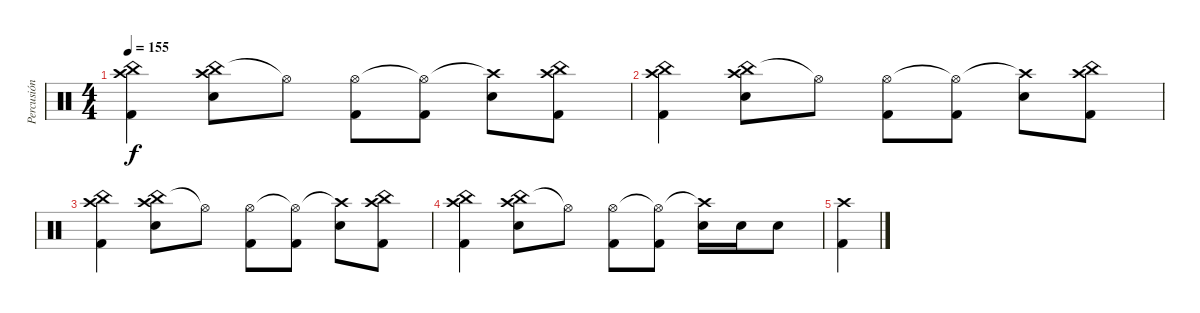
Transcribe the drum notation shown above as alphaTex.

\track ("Percusión" "Percusión") {instrument percussion}
\staff {score}
\articulation defaults
\ts (4 4)
\tempo 155
\clef neutral
\ks c
("China (hit)" "Crash high (hit)" "Kick (hit) 2").4{dy f} ("China (hit)" "Crash high (hit)" "Electric Snare (hit)").8 "Hi-Hat (open)"{t}.8 ("Hi-Hat (open)" "Kick (hit) 2").8 ("Hi-Hat (open)"{t} "Kick (hit) 2").8 ("Crash high (hit)"{t} "Electric Snare (hit)").8 ("China (hit)" "Crash high (hit)" "Kick (hit) 2").8 |
("China (hit)" "Crash high (hit)" "Kick (hit) 2").4 ("China (hit)" "Crash high (hit)" "Electric Snare (hit)").8 "Hi-Hat (open)"{t}.8 ("Hi-Hat (open)" "Kick (hit) 2").8 ("Hi-Hat (open)"{t} "Kick (hit) 2").8 ("Crash high (hit)"{t} "Electric Snare (hit)").8 ("China (hit)" "Crash high (hit)" "Kick (hit) 2").8 |
("China (hit)" "Crash high (hit)" "Kick (hit) 2").4 ("China (hit)" "Crash high (hit)" "Electric Snare (hit)").8 "Hi-Hat (open)"{t}.8 ("Hi-Hat (open)" "Kick (hit) 2").8 ("Hi-Hat (open)"{t} "Kick (hit) 2").8 ("Crash high (hit)"{t} "Electric Snare (hit)").8 ("China (hit)" "Crash high (hit)" "Kick (hit) 2").8 |
("China (hit)" "Crash high (hit)" "Kick (hit) 2").4 ("China (hit)" "Crash high (hit)" "Electric Snare (hit)").8 "Hi-Hat (open)"{t}.8 ("Hi-Hat (open)" "Kick (hit) 2").8 ("Hi-Hat (open)"{t} "Kick (hit) 2").8 ("Crash high (hit)"{t} "Electric Snare (hit)").16 "Electric Snare (hit)".16 "Electric Snare (hit)".8 |
("Crash high (hit)" "Kick (hit) 2").4
